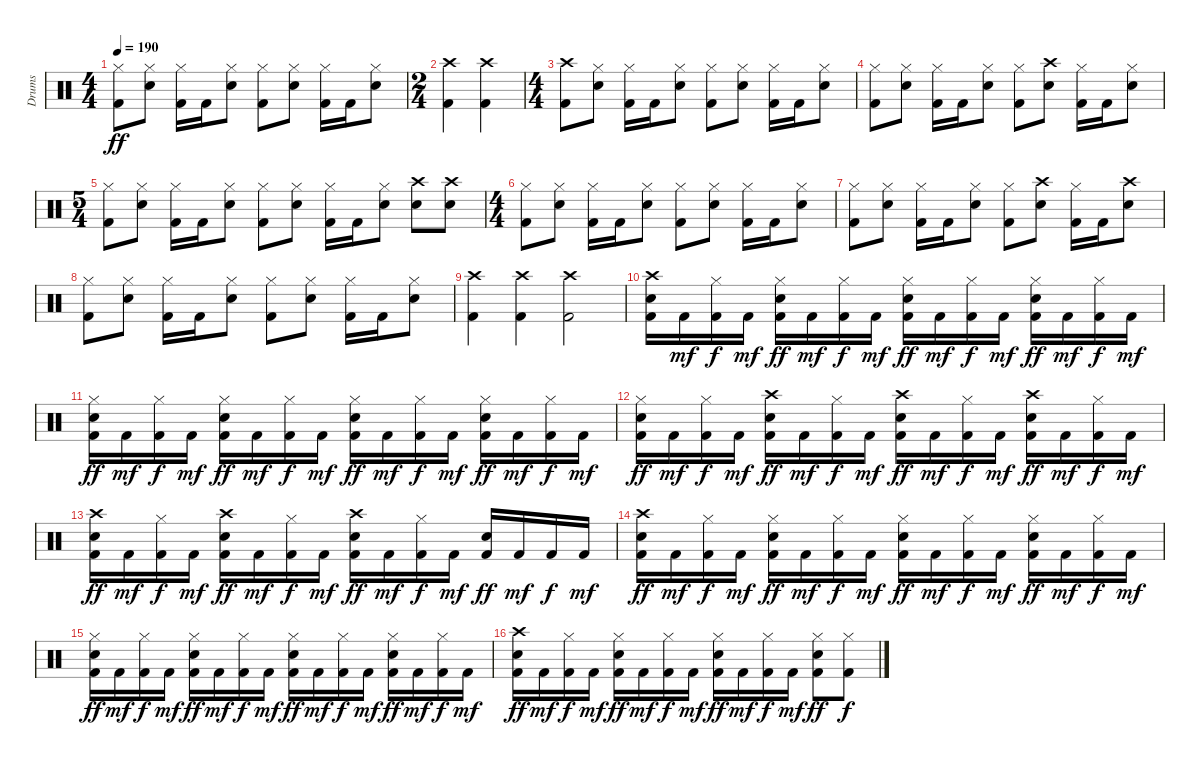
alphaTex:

\track ("Drums" "Drums") {instrument percussion}
\staff {score}
\articulation defaults
\ts (4 4)
\tempo 190
\clef neutral
\ks c
("Hi-Hat (closed)" "Kick (hit) 2").8{dy ff} ("Hi-Hat (closed)" "Snare (hit) 2").8 ("Hi-Hat (closed)" "Kick (hit) 2").16 "Kick (hit) 2".16 ("Hi-Hat (closed)" "Snare (hit) 2").8 ("Hi-Hat (closed)" "Kick (hit) 2").8 ("Hi-Hat (closed)" "Snare (hit) 2").8 ("Hi-Hat (closed)" "Kick (hit) 2").16 "Kick (hit) 2".16 ("Hi-Hat (closed)" "Snare (hit) 2").8 |
\ts (2 4)
("Crash high (hit)" "Kick (hit) 2").4 ("Crash high (hit)" "Kick (hit) 2").4 |
\ts (4 4)
("Crash high (hit)" "Kick (hit) 2").8 ("Hi-Hat (closed)" "Snare (hit) 2").8 ("Hi-Hat (closed)" "Kick (hit) 2").16 "Kick (hit) 2".16 ("Hi-Hat (closed)" "Snare (hit) 2").8 ("Hi-Hat (closed)" "Kick (hit) 2").8 ("Hi-Hat (closed)" "Snare (hit) 2").8 ("Hi-Hat (closed)" "Kick (hit) 2").16 "Kick (hit) 2".16 ("Hi-Hat (closed)" "Snare (hit) 2").8 |
("Hi-Hat (closed)" "Kick (hit) 2").8 ("Hi-Hat (closed)" "Snare (hit) 2").8 ("Hi-Hat (closed)" "Kick (hit) 2").16 "Kick (hit) 2".16 ("Hi-Hat (closed)" "Snare (hit) 2").8 ("Hi-Hat (closed)" "Kick (hit) 2").8 ("Crash high (hit)" "Snare (hit) 2").8 ("Hi-Hat (closed)" "Kick (hit) 2").16 "Kick (hit) 2".16 ("Hi-Hat (closed)" "Snare (hit) 2").8 |
\ts (5 4)
("Hi-Hat (closed)" "Kick (hit) 2").8 ("Hi-Hat (closed)" "Snare (hit) 2").8 ("Hi-Hat (closed)" "Kick (hit) 2").16 "Kick (hit) 2".16 ("Hi-Hat (closed)" "Snare (hit) 2").8 ("Hi-Hat (closed)" "Kick (hit) 2").8 ("Hi-Hat (closed)" "Snare (hit) 2").8 ("Hi-Hat (closed)" "Kick (hit) 2").16 "Kick (hit) 2".16 ("Hi-Hat (closed)" "Snare (hit) 2").8 ("Crash high (hit)" "Snare (hit) 2").8 ("Crash high (hit)" "Snare (hit) 2").8 |
\ts (4 4)
("Hi-Hat (closed)" "Kick (hit) 2").8 ("Hi-Hat (closed)" "Snare (hit) 2").8 ("Hi-Hat (closed)" "Kick (hit) 2").16 "Kick (hit) 2".16 ("Hi-Hat (closed)" "Snare (hit) 2").8 ("Hi-Hat (closed)" "Kick (hit) 2").8 ("Hi-Hat (closed)" "Snare (hit) 2").8 ("Hi-Hat (closed)" "Kick (hit) 2").16 "Kick (hit) 2".16 ("Hi-Hat (closed)" "Snare (hit) 2").8 |
("Hi-Hat (closed)" "Kick (hit) 2").8 ("Hi-Hat (closed)" "Snare (hit) 2").8 ("Hi-Hat (closed)" "Kick (hit) 2").16 "Kick (hit) 2".16 ("Hi-Hat (closed)" "Snare (hit) 2").8 ("Hi-Hat (closed)" "Kick (hit) 2").8 ("Crash high (hit)" "Snare (hit) 2").8 ("Hi-Hat (closed)" "Kick (hit) 2").16 "Kick (hit) 2".16 ("Crash high (hit)" "Snare (hit) 2").8 |
("Hi-Hat (closed)" "Kick (hit) 2").8 ("Hi-Hat (closed)" "Snare (hit) 2").8 ("Hi-Hat (closed)" "Kick (hit) 2").16 "Kick (hit) 2".16 ("Hi-Hat (closed)" "Snare (hit) 2").8 ("Hi-Hat (closed)" "Kick (hit) 2").8 ("Hi-Hat (closed)" "Snare (hit) 2").8 ("Hi-Hat (closed)" "Kick (hit) 2").16 "Kick (hit) 2".16 ("Hi-Hat (closed)" "Snare (hit) 2").8 |
("Crash high (hit)" "Kick (hit) 2").4 ("Crash high (hit)" "Kick (hit) 2").4 ("Crash high (hit)" "Kick (hit) 2").2 |
("Crash high (hit)" "Snare (hit) 2" "Kick (hit) 2").16 "Kick (hit) 2".16{dy mf} ("Hi-Hat (closed)" "Kick (hit) 2").16{dy f} "Kick (hit) 2".16{dy mf} ("Hi-Hat (closed)" "Snare (hit) 2" "Kick (hit) 2").16{dy ff} "Kick (hit) 2".16{dy mf} ("Hi-Hat (closed)" "Kick (hit) 2").16{dy f} "Kick (hit) 2".16{dy mf} ("Hi-Hat (closed)" "Snare (hit) 2" "Kick (hit) 2").16{dy ff} "Kick (hit) 2".16{dy mf} ("Hi-Hat (closed)" "Kick (hit) 2").16{dy f} "Kick (hit) 2".16{dy mf} ("Hi-Hat (closed)" "Snare (hit) 2" "Kick (hit) 2").16{dy ff} "Kick (hit) 2".16{dy mf} ("Hi-Hat (closed)" "Kick (hit) 2").16{dy f} "Kick (hit) 2".16{dy mf} |
("Hi-Hat (closed)" "Snare (hit) 2" "Kick (hit) 2").16{dy ff} "Kick (hit) 2".16{dy mf} ("Hi-Hat (closed)" "Kick (hit) 2").16{dy f} "Kick (hit) 2".16{dy mf} ("Hi-Hat (closed)" "Snare (hit) 2" "Kick (hit) 2").16{dy ff} "Kick (hit) 2".16{dy mf} ("Hi-Hat (closed)" "Kick (hit) 2").16{dy f} "Kick (hit) 2".16{dy mf} ("Hi-Hat (closed)" "Snare (hit) 2" "Kick (hit) 2").16{dy ff} "Kick (hit) 2".16{dy mf} ("Hi-Hat (closed)" "Kick (hit) 2").16{dy f} "Kick (hit) 2".16{dy mf} ("Hi-Hat (closed)" "Snare (hit) 2" "Kick (hit) 2").16{dy ff} "Kick (hit) 2".16{dy mf} ("Hi-Hat (closed)" "Kick (hit) 2").16{dy f} "Kick (hit) 2".16{dy mf} |
("Hi-Hat (closed)" "Snare (hit) 2" "Kick (hit) 2").16{dy ff} "Kick (hit) 2".16{dy mf} ("Hi-Hat (closed)" "Kick (hit) 2").16{dy f} "Kick (hit) 2".16{dy mf} ("Crash high (hit)" "Snare (hit) 2" "Kick (hit) 2").16{dy ff} "Kick (hit) 2".16{dy mf} ("Hi-Hat (closed)" "Kick (hit) 2").16{dy f} "Kick (hit) 2".16{dy mf} ("Crash high (hit)" "Snare (hit) 2" "Kick (hit) 2").16{dy ff} "Kick (hit) 2".16{dy mf} ("Hi-Hat (closed)" "Kick (hit) 2").16{dy f} "Kick (hit) 2".16{dy mf} ("Crash high (hit)" "Snare (hit) 2" "Kick (hit) 2").16{dy ff} "Kick (hit) 2".16{dy mf} ("Hi-Hat (closed)" "Kick (hit) 2").16{dy f} "Kick (hit) 2".16{dy mf} |
("Crash high (hit)" "Snare (hit) 2" "Kick (hit) 2").16{dy ff} "Kick (hit) 2".16{dy mf} ("Hi-Hat (closed)" "Kick (hit) 2").16{dy f} "Kick (hit) 2".16{dy mf} ("Crash high (hit)" "Snare (hit) 2" "Kick (hit) 2").16{dy ff} "Kick (hit) 2".16{dy mf} ("Hi-Hat (closed)" "Kick (hit) 2").16{dy f} "Kick (hit) 2".16{dy mf} ("Crash high (hit)" "Snare (hit) 2" "Kick (hit) 2").16{dy ff} "Kick (hit) 2".16{dy mf} ("Hi-Hat (closed)" "Kick (hit) 2").16{dy f} "Kick (hit) 2".16{dy mf} ("Snare (hit) 2" "Kick (hit) 2").16{dy ff} "Kick (hit) 2".16{dy mf} "Kick (hit) 2".16{dy f} "Kick (hit) 2".16{dy mf} |
("Crash high (hit)" "Snare (hit) 2" "Kick (hit) 2").16{dy ff} "Kick (hit) 2".16{dy mf} ("Hi-Hat (closed)" "Kick (hit) 2").16{dy f} "Kick (hit) 2".16{dy mf} ("Hi-Hat (closed)" "Snare (hit) 2" "Kick (hit) 2").16{dy ff} "Kick (hit) 2".16{dy mf} ("Hi-Hat (closed)" "Kick (hit) 2").16{dy f} "Kick (hit) 2".16{dy mf} ("Hi-Hat (closed)" "Snare (hit) 2" "Kick (hit) 2").16{dy ff} "Kick (hit) 2".16{dy mf} ("Hi-Hat (closed)" "Kick (hit) 2").16{dy f} "Kick (hit) 2".16{dy mf} ("Hi-Hat (closed)" "Snare (hit) 2" "Kick (hit) 2").16{dy ff} "Kick (hit) 2".16{dy mf} ("Hi-Hat (closed)" "Kick (hit) 2").16{dy f} "Kick (hit) 2".16{dy mf} |
("Hi-Hat (closed)" "Snare (hit) 2" "Kick (hit) 2").16{dy ff} "Kick (hit) 2".16{dy mf} ("Hi-Hat (closed)" "Kick (hit) 2").16{dy f} "Kick (hit) 2".16{dy mf} ("Hi-Hat (closed)" "Snare (hit) 2" "Kick (hit) 2").16{dy ff} "Kick (hit) 2".16{dy mf} ("Hi-Hat (closed)" "Kick (hit) 2").16{dy f} "Kick (hit) 2".16{dy mf} ("Hi-Hat (closed)" "Snare (hit) 2" "Kick (hit) 2").16{dy ff} "Kick (hit) 2".16{dy mf} ("Hi-Hat (closed)" "Kick (hit) 2").16{dy f} "Kick (hit) 2".16{dy mf} ("Hi-Hat (closed)" "Snare (hit) 2" "Kick (hit) 2").16{dy ff} "Kick (hit) 2".16{dy mf} ("Hi-Hat (closed)" "Kick (hit) 2").16{dy f} "Kick (hit) 2".16{dy mf} |
("Crash high (hit)" "Snare (hit) 2" "Kick (hit) 2").16{dy ff} "Kick (hit) 2".16{dy mf} ("Hi-Hat (closed)" "Kick (hit) 2").16{dy f} "Kick (hit) 2".16{dy mf} ("Hi-Hat (closed)" "Snare (hit) 2" "Kick (hit) 2").16{dy ff} "Kick (hit) 2".16{dy mf} ("Hi-Hat (closed)" "Kick (hit) 2").16{dy f} "Kick (hit) 2".16{dy mf} ("Hi-Hat (closed)" "Snare (hit) 2" "Kick (hit) 2").16{dy ff} "Kick (hit) 2".16{dy mf} ("Hi-Hat (closed)" "Kick (hit) 2").16{dy f} "Kick (hit) 2".16{dy mf} ("Hi-Hat (closed)" "Snare (hit) 2" "Kick (hit) 2").8{dy ff} ("Hi-Hat (closed)" "Kick (hit) 2").8{dy f}
